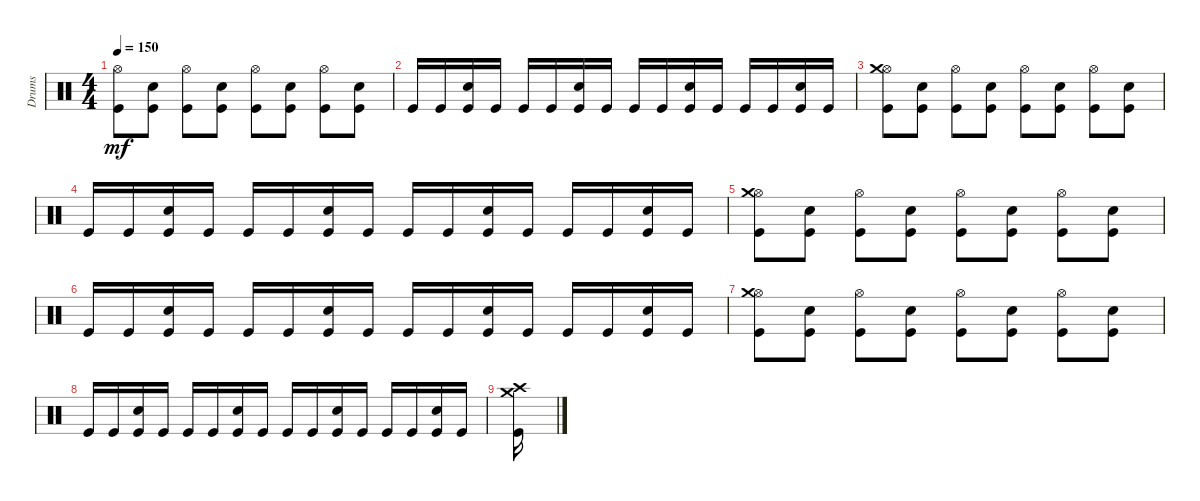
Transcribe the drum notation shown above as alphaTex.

\track ("Drums" "Drums") {instrument percussion}
\staff {score}
\articulation defaults
\ts (4 4)
\tempo 150
\clef neutral
\ks c
("Kick (hit)" "Hi-Hat (open)").8{dy mf} ("Kick (hit)" "Snare (hit) 2").8 ("Kick (hit)" "Hi-Hat (open)").8 ("Kick (hit)" "Snare (hit) 2").8 ("Kick (hit)" "Hi-Hat (open)").8 ("Kick (hit)" "Snare (hit) 2").8 ("Kick (hit)" "Hi-Hat (open)").8 ("Kick (hit)" "Snare (hit) 2").8 |
"Kick (hit)".16 "Kick (hit)".16 ("Kick (hit)" "Snare (hit) 2").16 "Kick (hit)".16 "Kick (hit)".16 "Kick (hit)".16 ("Kick (hit)" "Snare (hit) 2").16 "Kick (hit)".16 "Kick (hit)".16 "Kick (hit)".16 ("Kick (hit)" "Snare (hit) 2").16 "Kick (hit)".16 "Kick (hit)".16 "Kick (hit)".16 ("Kick (hit)" "Snare (hit) 2").16 "Kick (hit)".16 |
("Kick (hit)" "Hi-Hat (open)" "Crash medium (hit)").8 ("Kick (hit)" "Snare (hit) 2").8 ("Kick (hit)" "Hi-Hat (open)").8 ("Kick (hit)" "Snare (hit) 2").8 ("Kick (hit)" "Hi-Hat (open)").8 ("Kick (hit)" "Snare (hit) 2").8 ("Kick (hit)" "Hi-Hat (open)").8 ("Kick (hit)" "Snare (hit) 2").8 |
"Kick (hit)".16 "Kick (hit)".16 ("Kick (hit)" "Snare (hit) 2").16 "Kick (hit)".16 "Kick (hit)".16 "Kick (hit)".16 ("Kick (hit)" "Snare (hit) 2").16 "Kick (hit)".16 "Kick (hit)".16 "Kick (hit)".16 ("Kick (hit)" "Snare (hit) 2").16 "Kick (hit)".16 "Kick (hit)".16 "Kick (hit)".16 ("Kick (hit)" "Snare (hit) 2").16 "Kick (hit)".16 |
("Kick (hit)" "Hi-Hat (open)" "Crash medium (hit)").8 ("Kick (hit)" "Snare (hit) 2").8 ("Kick (hit)" "Hi-Hat (open)").8 ("Kick (hit)" "Snare (hit) 2").8 ("Kick (hit)" "Hi-Hat (open)").8 ("Kick (hit)" "Snare (hit) 2").8 ("Kick (hit)" "Hi-Hat (open)").8 ("Kick (hit)" "Snare (hit) 2").8 |
"Kick (hit)".16 "Kick (hit)".16 ("Kick (hit)" "Snare (hit) 2").16 "Kick (hit)".16 "Kick (hit)".16 "Kick (hit)".16 ("Kick (hit)" "Snare (hit) 2").16 "Kick (hit)".16 "Kick (hit)".16 "Kick (hit)".16 ("Kick (hit)" "Snare (hit) 2").16 "Kick (hit)".16 "Kick (hit)".16 "Kick (hit)".16 ("Kick (hit)" "Snare (hit) 2").16 "Kick (hit)".16 |
("Kick (hit)" "Hi-Hat (open)" "Crash medium (hit)").8 ("Kick (hit)" "Snare (hit) 2").8 ("Kick (hit)" "Hi-Hat (open)").8 ("Kick (hit)" "Snare (hit) 2").8 ("Kick (hit)" "Hi-Hat (open)").8 ("Kick (hit)" "Snare (hit) 2").8 ("Kick (hit)" "Hi-Hat (open)").8 ("Kick (hit)" "Snare (hit) 2").8 |
"Kick (hit)".16 "Kick (hit)".16 ("Kick (hit)" "Snare (hit) 2").16 "Kick (hit)".16 "Kick (hit)".16 "Kick (hit)".16 ("Kick (hit)" "Snare (hit) 2").16 "Kick (hit)".16 "Kick (hit)".16 "Kick (hit)".16 ("Kick (hit)" "Snare (hit) 2").16 "Kick (hit)".16 "Kick (hit)".16 "Kick (hit)".16 ("Kick (hit)" "Snare (hit) 2").16 "Kick (hit)".16 |
("Crash medium (hit)" "Crash high (hit)" "Kick (hit)").16
